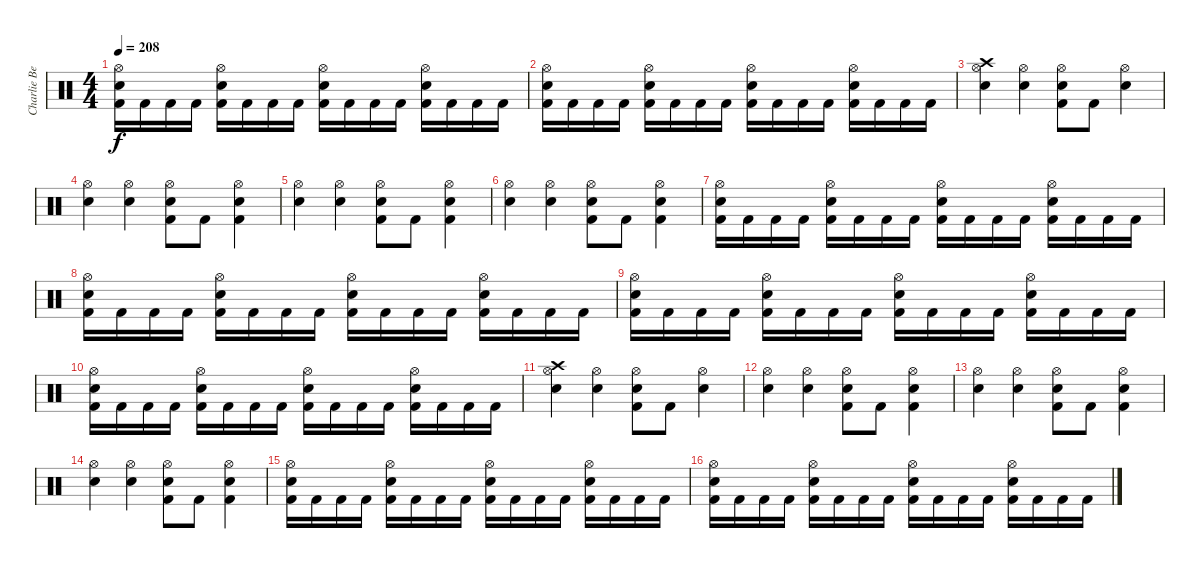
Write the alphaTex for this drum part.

\track ("Charlie Benate" "Charlie Be") {instrument percussion}
\staff {score}
\articulation defaults
\ts (4 4)
\tempo 208
\clef neutral
\ks c
("Hi-Hat (open)" "Electric Snare (hit)" "Kick (hit) 2").16{dy f} "Kick (hit) 2".16 "Kick (hit) 2".16 "Kick (hit) 2".16 ("Hi-Hat (open)" "Electric Snare (hit)" "Kick (hit) 2").16 "Kick (hit) 2".16 "Kick (hit) 2".16 "Kick (hit) 2".16 ("Hi-Hat (open)" "Electric Snare (hit)" "Kick (hit) 2").16 "Kick (hit) 2".16 "Kick (hit) 2".16 "Kick (hit) 2".16 ("Hi-Hat (open)" "Electric Snare (hit)" "Kick (hit) 2").16 "Kick (hit) 2".16 "Kick (hit) 2".16 "Kick (hit) 2".16 |
("Hi-Hat (open)" "Electric Snare (hit)" "Kick (hit) 2").16 "Kick (hit) 2".16 "Kick (hit) 2".16 "Kick (hit) 2".16 ("Hi-Hat (open)" "Electric Snare (hit)" "Kick (hit) 2").16 "Kick (hit) 2".16 "Kick (hit) 2".16 "Kick (hit) 2".16 ("Hi-Hat (open)" "Electric Snare (hit)" "Kick (hit) 2").16 "Kick (hit) 2".16 "Kick (hit) 2".16 "Kick (hit) 2".16 ("Hi-Hat (open)" "Electric Snare (hit)" "Kick (hit) 2").16 "Kick (hit) 2".16 "Kick (hit) 2".16 "Kick (hit) 2".16 |
("Hi-Hat (open)" "Electric Snare (hit)" "Crash high (hit)").4 ("Hi-Hat (open)" "Electric Snare (hit)").4 ("Hi-Hat (open)" "Electric Snare (hit)" "Kick (hit) 2").8 "Kick (hit) 2".8 ("Hi-Hat (open)" "Electric Snare (hit)").4 |
("Hi-Hat (open)" "Electric Snare (hit)").4 ("Hi-Hat (open)" "Electric Snare (hit)").4 ("Hi-Hat (open)" "Electric Snare (hit)" "Kick (hit) 2").8 "Kick (hit) 2".8 ("Hi-Hat (open)" "Electric Snare (hit)" "Kick (hit) 2").4 |
("Hi-Hat (open)" "Electric Snare (hit)").4 ("Hi-Hat (open)" "Electric Snare (hit)").4 ("Hi-Hat (open)" "Electric Snare (hit)" "Kick (hit) 2").8 "Kick (hit) 2".8 ("Hi-Hat (open)" "Electric Snare (hit)" "Kick (hit) 2").4 |
("Hi-Hat (open)" "Electric Snare (hit)").4 ("Hi-Hat (open)" "Electric Snare (hit)").4 ("Hi-Hat (open)" "Electric Snare (hit)" "Kick (hit) 2").8 "Kick (hit) 2".8 ("Hi-Hat (open)" "Electric Snare (hit)" "Kick (hit) 2").4 |
("Hi-Hat (open)" "Electric Snare (hit)" "Kick (hit) 2").16 "Kick (hit) 2".16 "Kick (hit) 2".16 "Kick (hit) 2".16 ("Hi-Hat (open)" "Electric Snare (hit)" "Kick (hit) 2").16 "Kick (hit) 2".16 "Kick (hit) 2".16 "Kick (hit) 2".16 ("Hi-Hat (open)" "Electric Snare (hit)" "Kick (hit) 2").16 "Kick (hit) 2".16 "Kick (hit) 2".16 "Kick (hit) 2".16 ("Hi-Hat (open)" "Electric Snare (hit)" "Kick (hit) 2").16 "Kick (hit) 2".16 "Kick (hit) 2".16 "Kick (hit) 2".16 |
("Hi-Hat (open)" "Electric Snare (hit)" "Kick (hit) 2").16 "Kick (hit) 2".16 "Kick (hit) 2".16 "Kick (hit) 2".16 ("Hi-Hat (open)" "Electric Snare (hit)" "Kick (hit) 2").16 "Kick (hit) 2".16 "Kick (hit) 2".16 "Kick (hit) 2".16 ("Hi-Hat (open)" "Electric Snare (hit)" "Kick (hit) 2").16 "Kick (hit) 2".16 "Kick (hit) 2".16 "Kick (hit) 2".16 ("Hi-Hat (open)" "Electric Snare (hit)" "Kick (hit) 2").16 "Kick (hit) 2".16 "Kick (hit) 2".16 "Kick (hit) 2".16 |
("Hi-Hat (open)" "Electric Snare (hit)" "Kick (hit) 2").16 "Kick (hit) 2".16 "Kick (hit) 2".16 "Kick (hit) 2".16 ("Hi-Hat (open)" "Electric Snare (hit)" "Kick (hit) 2").16 "Kick (hit) 2".16 "Kick (hit) 2".16 "Kick (hit) 2".16 ("Hi-Hat (open)" "Electric Snare (hit)" "Kick (hit) 2").16 "Kick (hit) 2".16 "Kick (hit) 2".16 "Kick (hit) 2".16 ("Hi-Hat (open)" "Electric Snare (hit)" "Kick (hit) 2").16 "Kick (hit) 2".16 "Kick (hit) 2".16 "Kick (hit) 2".16 |
("Hi-Hat (open)" "Electric Snare (hit)" "Kick (hit) 2").16 "Kick (hit) 2".16 "Kick (hit) 2".16 "Kick (hit) 2".16 ("Hi-Hat (open)" "Electric Snare (hit)" "Kick (hit) 2").16 "Kick (hit) 2".16 "Kick (hit) 2".16 "Kick (hit) 2".16 ("Hi-Hat (open)" "Electric Snare (hit)" "Kick (hit) 2").16 "Kick (hit) 2".16 "Kick (hit) 2".16 "Kick (hit) 2".16 ("Hi-Hat (open)" "Electric Snare (hit)" "Kick (hit) 2").16 "Kick (hit) 2".16 "Kick (hit) 2".16 "Kick (hit) 2".16 |
("Hi-Hat (open)" "Electric Snare (hit)" "Crash high (hit)").4 ("Hi-Hat (open)" "Electric Snare (hit)").4 ("Hi-Hat (open)" "Electric Snare (hit)" "Kick (hit) 2").8 "Kick (hit) 2".8 ("Hi-Hat (open)" "Electric Snare (hit)").4 |
("Hi-Hat (open)" "Electric Snare (hit)").4 ("Hi-Hat (open)" "Electric Snare (hit)").4 ("Hi-Hat (open)" "Electric Snare (hit)" "Kick (hit) 2").8 "Kick (hit) 2".8 ("Hi-Hat (open)" "Electric Snare (hit)" "Kick (hit) 2").4 |
("Hi-Hat (open)" "Electric Snare (hit)").4 ("Hi-Hat (open)" "Electric Snare (hit)").4 ("Hi-Hat (open)" "Electric Snare (hit)" "Kick (hit) 2").8 "Kick (hit) 2".8 ("Hi-Hat (open)" "Electric Snare (hit)" "Kick (hit) 2").4 |
("Hi-Hat (open)" "Electric Snare (hit)").4 ("Hi-Hat (open)" "Electric Snare (hit)").4 ("Hi-Hat (open)" "Electric Snare (hit)" "Kick (hit) 2").8 "Kick (hit) 2".8 ("Hi-Hat (open)" "Electric Snare (hit)" "Kick (hit) 2").4 |
("Hi-Hat (open)" "Electric Snare (hit)" "Kick (hit) 2").16 "Kick (hit) 2".16 "Kick (hit) 2".16 "Kick (hit) 2".16 ("Hi-Hat (open)" "Electric Snare (hit)" "Kick (hit) 2").16 "Kick (hit) 2".16 "Kick (hit) 2".16 "Kick (hit) 2".16 ("Hi-Hat (open)" "Electric Snare (hit)" "Kick (hit) 2").16 "Kick (hit) 2".16 "Kick (hit) 2".16 "Kick (hit) 2".16 ("Hi-Hat (open)" "Electric Snare (hit)" "Kick (hit) 2").16 "Kick (hit) 2".16 "Kick (hit) 2".16 "Kick (hit) 2".16 |
("Hi-Hat (open)" "Electric Snare (hit)" "Kick (hit) 2").16 "Kick (hit) 2".16 "Kick (hit) 2".16 "Kick (hit) 2".16 ("Hi-Hat (open)" "Electric Snare (hit)" "Kick (hit) 2").16 "Kick (hit) 2".16 "Kick (hit) 2".16 "Kick (hit) 2".16 ("Hi-Hat (open)" "Electric Snare (hit)" "Kick (hit) 2").16 "Kick (hit) 2".16 "Kick (hit) 2".16 "Kick (hit) 2".16 ("Hi-Hat (open)" "Electric Snare (hit)" "Kick (hit) 2").16 "Kick (hit) 2".16 "Kick (hit) 2".16 "Kick (hit) 2".16
